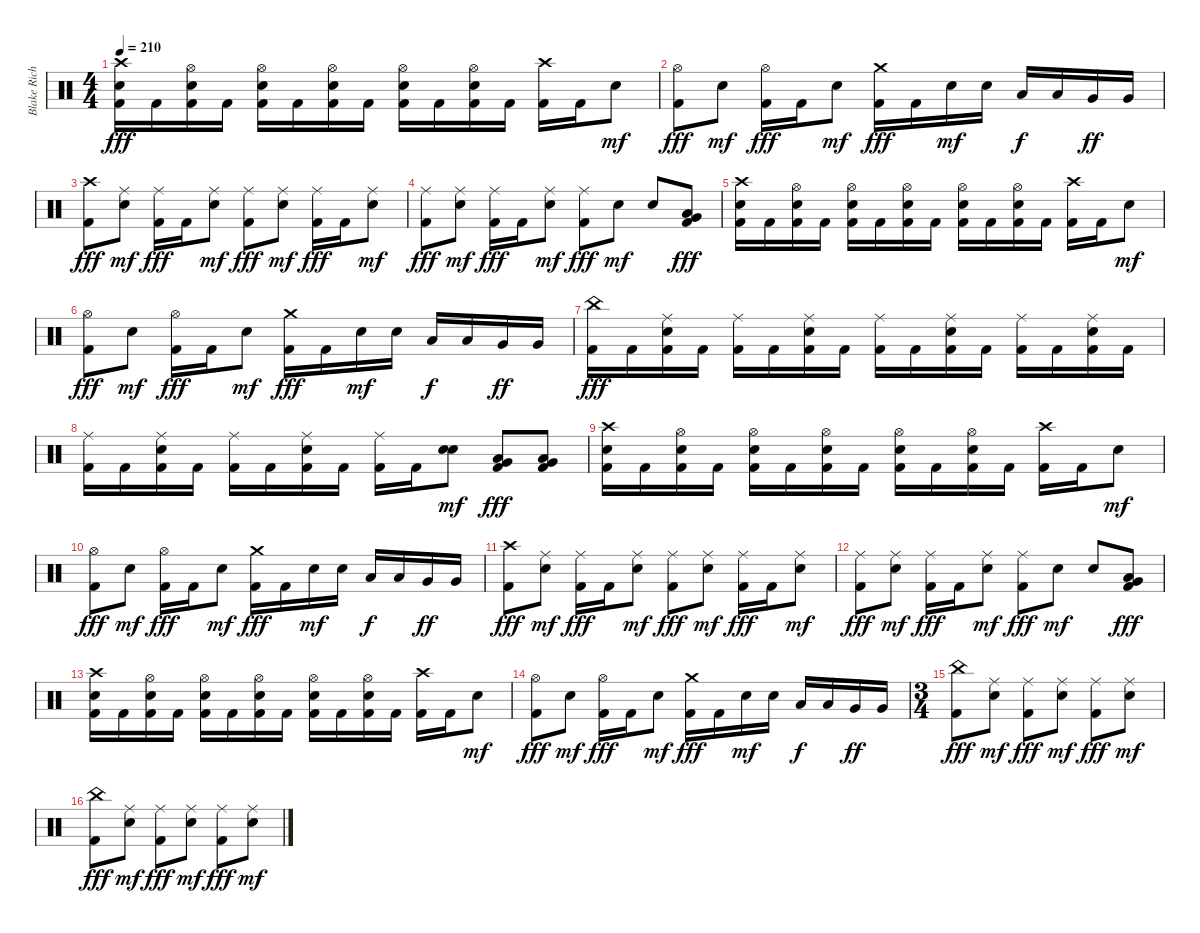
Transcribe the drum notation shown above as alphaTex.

\track ("Blake Richardson" "Blake Rich") {instrument percussion}
\staff {score}
\articulation defaults
\ts (4 4)
\tempo 210
\clef neutral
\ks c
("Crash high (hit)" "Electric Snare (hit)" "Kick (hit) 2").16{dy fff} "Kick (hit) 2".16 ("Hi-Hat (open)" "Electric Snare (hit)" "Kick (hit) 2").16 "Kick (hit) 2".16 ("Hi-Hat (open)" "Electric Snare (hit)" "Kick (hit) 2").16 "Kick (hit) 2".16 ("Hi-Hat (open)" "Electric Snare (hit)" "Kick (hit) 2").16 "Kick (hit) 2".16 ("Hi-Hat (open)" "Electric Snare (hit)" "Kick (hit) 2").16 "Kick (hit) 2".16 ("Hi-Hat (open)" "Electric Snare (hit)" "Kick (hit) 2").16 "Kick (hit) 2".16 ("Crash high (hit)" "Kick (hit) 2").16 "Kick (hit) 2".16 "Electric Snare (hit)".8{dy mf} |
("Hi-Hat (open)" "Kick (hit) 2").8{dy fff} "Electric Snare (hit)".8{dy mf} ("Hi-Hat (open)" "Kick (hit) 2").16{dy fff} "Kick (hit) 2".16 "Electric Snare (hit)".8{dy mf} ("Crash medium (hit)" "Kick (hit) 2").16{dy fff} "Kick (hit) 2".16 "Electric Snare (hit)".16{dy mf} "Electric Snare (hit)".16 "Low Tom (hit)".16{dy f} "Low Tom (hit)".16 "Very Low Tom (hit)".16{dy ff} "Very Low Tom (hit)".16 |
("Crash high (hit)" "Kick (hit) 2").8{dy fff} ("Ride (middle)" "Electric Snare (hit)").8{dy mf} ("Ride (middle)" "Kick (hit) 2").16{dy fff} "Kick (hit) 2".16 ("Ride (middle)" "Electric Snare (hit)").8{dy mf} ("Ride (middle)" "Kick (hit) 2").8{dy fff} ("Ride (middle)" "Electric Snare (hit)").8{dy mf} ("Ride (middle)" "Kick (hit) 2").16{dy fff} "Kick (hit) 2".16 ("Ride (middle)" "Electric Snare (hit)").8{dy mf} |
("Ride (middle)" "Kick (hit) 2").8{dy fff} ("Ride (middle)" "Electric Snare (hit)").8{dy mf} ("Ride (middle)" "Kick (hit) 2").16{dy fff} "Kick (hit) 2".16 ("Ride (middle)" "Electric Snare (hit)").8{dy mf} ("Ride (middle)" "Kick (hit) 2").8{dy fff} "Electric Snare (hit)".8{dy mf} "Electric Snare (hit)".8 ("Very Low Tom (hit)" "Low Floor Tom (hit)" "Kick (hit) 2").8{dy fff} |
("Crash high (hit)" "Electric Snare (hit)" "Kick (hit) 2").16 "Kick (hit) 2".16 ("Hi-Hat (open)" "Electric Snare (hit)" "Kick (hit) 2").16 "Kick (hit) 2".16 ("Hi-Hat (open)" "Electric Snare (hit)" "Kick (hit) 2").16 "Kick (hit) 2".16 ("Hi-Hat (open)" "Electric Snare (hit)" "Kick (hit) 2").16 "Kick (hit) 2".16 ("Hi-Hat (open)" "Electric Snare (hit)" "Kick (hit) 2").16 "Kick (hit) 2".16 ("Hi-Hat (open)" "Electric Snare (hit)" "Kick (hit) 2").16 "Kick (hit) 2".16 ("Crash high (hit)" "Kick (hit) 2").16 "Kick (hit) 2".16 "Electric Snare (hit)".8{dy mf} |
("Hi-Hat (open)" "Kick (hit) 2").8{dy fff} "Electric Snare (hit)".8{dy mf} ("Hi-Hat (open)" "Kick (hit) 2").16{dy fff} "Kick (hit) 2".16 "Electric Snare (hit)".8{dy mf} ("Crash medium (hit)" "Kick (hit) 2").16{dy fff} "Kick (hit) 2".16 "Electric Snare (hit)".16{dy mf} "Electric Snare (hit)".16 "Low Tom (hit)".16{dy f} "Low Tom (hit)".16 "Very Low Tom (hit)".16{dy ff} "Very Low Tom (hit)".16 |
("China (hit)" "Kick (hit) 2").16{dy fff} "Kick (hit) 2".16 ("Ride (middle)" "Electric Snare (hit)" "Kick (hit) 2").16 "Kick (hit) 2".16 ("Ride (middle)" "Kick (hit) 2").16 "Kick (hit) 2".16 ("Ride (middle)" "Electric Snare (hit)" "Kick (hit) 2").16 "Kick (hit) 2".16 ("Ride (middle)" "Kick (hit) 2").16 "Kick (hit) 2".16 ("Ride (middle)" "Electric Snare (hit)" "Kick (hit) 2").16 "Kick (hit) 2".16 ("Ride (middle)" "Kick (hit) 2").16 "Kick (hit) 2".16 ("Ride (middle)" "Electric Snare (hit)" "Kick (hit) 2").16 "Kick (hit) 2".16 |
("Ride (middle)" "Kick (hit) 2").16 "Kick (hit) 2".16 ("Ride (middle)" "Electric Snare (hit)" "Kick (hit) 2").16 "Kick (hit) 2".16 ("Ride (middle)" "Kick (hit) 2").16 "Kick (hit) 2".16 ("Ride (middle)" "Electric Snare (hit)" "Kick (hit) 2").16 "Kick (hit) 2".16 ("Ride (middle)" "Kick (hit) 2").16 "Kick (hit) 2".16 ("Electric Snare (hit)" "Electric Snare (hit)").8{bu 480 dy mf} ("Very Low Tom (hit)" "Low Tom (hit)" "Kick (hit) 2").8{dy fff} ("Low Floor Tom (hit)" "Very Low Tom (hit)" "Kick (hit) 2").8 |
("Crash high (hit)" "Electric Snare (hit)" "Kick (hit) 2").16 "Kick (hit) 2".16 ("Hi-Hat (open)" "Electric Snare (hit)" "Kick (hit) 2").16 "Kick (hit) 2".16 ("Hi-Hat (open)" "Electric Snare (hit)" "Kick (hit) 2").16 "Kick (hit) 2".16 ("Hi-Hat (open)" "Electric Snare (hit)" "Kick (hit) 2").16 "Kick (hit) 2".16 ("Hi-Hat (open)" "Electric Snare (hit)" "Kick (hit) 2").16 "Kick (hit) 2".16 ("Hi-Hat (open)" "Electric Snare (hit)" "Kick (hit) 2").16 "Kick (hit) 2".16 ("Crash high (hit)" "Kick (hit) 2").16 "Kick (hit) 2".16 "Electric Snare (hit)".8{dy mf} |
("Hi-Hat (open)" "Kick (hit) 2").8{dy fff} "Electric Snare (hit)".8{dy mf} ("Hi-Hat (open)" "Kick (hit) 2").16{dy fff} "Kick (hit) 2".16 "Electric Snare (hit)".8{dy mf} ("Crash medium (hit)" "Kick (hit) 2").16{dy fff} "Kick (hit) 2".16 "Electric Snare (hit)".16{dy mf} "Electric Snare (hit)".16 "Low Tom (hit)".16{dy f} "Low Tom (hit)".16 "Very Low Tom (hit)".16{dy ff} "Very Low Tom (hit)".16 |
("Crash high (hit)" "Kick (hit) 2").8{dy fff} ("Ride (middle)" "Electric Snare (hit)").8{dy mf} ("Ride (middle)" "Kick (hit) 2").16{dy fff} "Kick (hit) 2".16 ("Ride (middle)" "Electric Snare (hit)").8{dy mf} ("Ride (middle)" "Kick (hit) 2").8{dy fff} ("Ride (middle)" "Electric Snare (hit)").8{dy mf} ("Ride (middle)" "Kick (hit) 2").16{dy fff} "Kick (hit) 2".16 ("Ride (middle)" "Electric Snare (hit)").8{dy mf} |
("Ride (middle)" "Kick (hit) 2").8{dy fff} ("Ride (middle)" "Electric Snare (hit)").8{dy mf} ("Ride (middle)" "Kick (hit) 2").16{dy fff} "Kick (hit) 2".16 ("Ride (middle)" "Electric Snare (hit)").8{dy mf} ("Ride (middle)" "Kick (hit) 2").8{dy fff} "Electric Snare (hit)".8{dy mf} "Electric Snare (hit)".8 ("Very Low Tom (hit)" "Low Floor Tom (hit)" "Kick (hit) 2").8{dy fff} |
("Crash high (hit)" "Electric Snare (hit)" "Kick (hit) 2").16 "Kick (hit) 2".16 ("Hi-Hat (open)" "Electric Snare (hit)" "Kick (hit) 2").16 "Kick (hit) 2".16 ("Hi-Hat (open)" "Electric Snare (hit)" "Kick (hit) 2").16 "Kick (hit) 2".16 ("Hi-Hat (open)" "Electric Snare (hit)" "Kick (hit) 2").16 "Kick (hit) 2".16 ("Hi-Hat (open)" "Electric Snare (hit)" "Kick (hit) 2").16 "Kick (hit) 2".16 ("Hi-Hat (open)" "Electric Snare (hit)" "Kick (hit) 2").16 "Kick (hit) 2".16 ("Crash high (hit)" "Kick (hit) 2").16 "Kick (hit) 2".16 "Electric Snare (hit)".8{dy mf} |
("Hi-Hat (open)" "Kick (hit) 2").8{dy fff} "Electric Snare (hit)".8{dy mf} ("Hi-Hat (open)" "Kick (hit) 2").16{dy fff} "Kick (hit) 2".16 "Electric Snare (hit)".8{dy mf} ("Crash medium (hit)" "Kick (hit) 2").16{dy fff} "Kick (hit) 2".16 "Electric Snare (hit)".16{dy mf} "Electric Snare (hit)".16 "Low Tom (hit)".16{dy f} "Low Tom (hit)".16 "Very Low Tom (hit)".16{dy ff} "Very Low Tom (hit)".16 |
\ts (3 4)
("China (hit)" "Kick (hit) 2").8{dy fff} ("Ride (middle)" "Electric Snare (hit)").8{dy mf} ("Ride (middle)" "Kick (hit) 2").8{dy fff} ("Ride (middle)" "Electric Snare (hit)").8{dy mf} ("Ride (middle)" "Kick (hit) 2").8{dy fff} ("Ride (middle)" "Electric Snare (hit)").8{dy mf} |
("China (hit)" "Kick (hit) 2").8{dy fff} ("Ride (middle)" "Electric Snare (hit)").8{dy mf} ("Ride (middle)" "Kick (hit) 2").8{dy fff} ("Ride (middle)" "Electric Snare (hit)").8{dy mf} ("Ride (middle)" "Kick (hit) 2").8{dy fff} ("Ride (middle)" "Electric Snare (hit)").8{dy mf}
